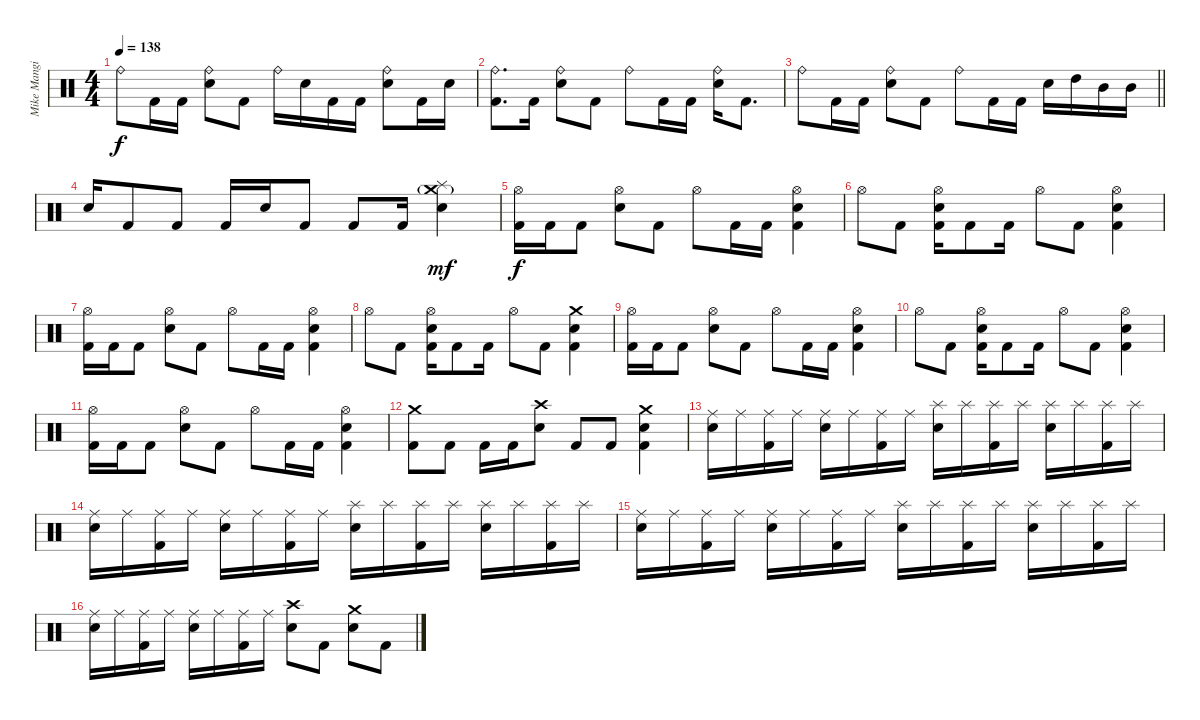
\track ("Mike Mangini" "Mike Mangi") {instrument percussion}
\staff {score}
\articulation defaults
\ts (4 4)
\tempo 138
\clef neutral
\ks c "Ride (bell)".8{dy f} "Kick (hit) 2".16 "Kick (hit) 2".16
("Ride (bell)" "Electric Snare (hit)").8 "Kick (hit) 2".8 "Ride (bell)".16 "Electric Snare (hit)".16 "Kick (hit) 2".16 "Kick (hit) 2".16 ("Ride (bell)" "Electric Snare (hit)").8 "Kick (hit) 2".16 "Electric Snare (hit)".16 |
("Ride (bell)" "Kick (hit) 2").8{d} "Kick (hit) 2".16 ("Ride (bell)" "Electric Snare (hit)").8 "Kick (hit) 2".8 "Ride (bell)".8 "Kick (hit) 2".16 "Kick (hit) 2".16 ("Ride (bell)" "Electric Snare (hit)").16 "Kick (hit) 2".8{d} |
\barLineRight lightlight "Ride (bell)".8 "Kick (hit) 2".16 "Kick (hit) 2".16
("Ride (bell)" "Electric Snare (hit)").8 "Kick (hit) 2".8 "Ride (bell)".8 "Kick (hit) 2".16 "Kick (hit) 2".16 "Electric Snare (hit)".16 "High Tom (hit)".16 "Mid Tom (hit)".16 "Mid Tom (hit)".16 |
"Electric Snare (hit)".16 "Kick (hit) 2".8 "Kick (hit) 2".8 "Kick (hit) 2".16 "Electric Snare (hit)".16 "Kick (hit) 2".8 "Kick (hit) 2".8 "Kick (hit) 2".16 ("Crash medium (hit)"{g} "Splash (hit)" "Electric Snare (hit)").4{dy mf} |
("Hi-Hat (open)" "Kick (hit) 2").16{dy f} "Kick (hit) 2".16 "Kick (hit) 2".8 ("Hi-Hat (open)" "Electric Snare (hit)").8 "Kick (hit) 2".8 "Hi-Hat (open)".8 "Kick (hit) 2".16 "Kick (hit) 2".16 ("Hi-Hat (open)" "Electric Snare (hit)" "Kick (hit) 2").4 |
"Hi-Hat (open)".8 "Kick (hit) 2".8 ("Hi-Hat (open)" "Electric Snare (hit)" "Kick (hit) 2").16 "Kick (hit) 2".8 "Kick (hit) 2".16 "Hi-Hat (open)".8 "Kick (hit) 2".8 ("Hi-Hat (open)" "Electric Snare (hit)" "Kick (hit) 2").4 |
("Hi-Hat (open)" "Kick (hit) 2").16 "Kick (hit) 2".16 "Kick (hit) 2".8 ("Hi-Hat (open)" "Electric Snare (hit)").8 "Kick (hit) 2".8 "Hi-Hat (open)".8 "Kick (hit) 2".16 "Kick (hit) 2".16 ("Hi-Hat (open)" "Electric Snare (hit)" "Kick (hit) 2").4 |
"Hi-Hat (open)".8 "Kick (hit) 2".8 ("Hi-Hat (open)" "Electric Snare (hit)" "Kick (hit) 2").16 "Kick (hit) 2".8 "Kick (hit) 2".16 "Hi-Hat (open)".8 "Kick (hit) 2".8 ("Crash medium (hit)" "Electric Snare (hit)" "Kick (hit) 2").4 |
("Hi-Hat (open)" "Kick (hit) 2").16 "Kick (hit) 2".16 "Kick (hit) 2".8 ("Hi-Hat (open)" "Electric Snare (hit)").8 "Kick (hit) 2".8 "Hi-Hat (open)".8 "Kick (hit) 2".16 "Kick (hit) 2".16 ("Hi-Hat (open)" "Electric Snare (hit)" "Kick (hit) 2").4 |
"Hi-Hat (open)".8 "Kick (hit) 2".8 ("Hi-Hat (open)" "Electric Snare (hit)" "Kick (hit) 2").16 "Kick (hit) 2".8 "Kick (hit) 2".16 "Hi-Hat (open)".8 "Kick (hit) 2".8 ("Hi-Hat (open)" "Electric Snare (hit)" "Kick (hit) 2").4 |
("Hi-Hat (open)" "Kick (hit) 2").16 "Kick (hit) 2".16 "Kick (hit) 2".8 ("Hi-Hat (open)" "Electric Snare (hit)").8 "Kick (hit) 2".8 "Hi-Hat (open)".8 "Kick (hit) 2".16 "Kick (hit) 2".16 ("Hi-Hat (open)" "Electric Snare (hit)" "Kick (hit) 2").4 |
("Crash medium (hit)" "Kick (hit) 2").8 "Kick (hit) 2".8 "Kick (hit) 2".16 "Kick (hit) 2".16 ("Crash high (hit)" "Electric Snare (hit)").8 "Kick (hit) 2".8 "Kick (hit) 2".8 ("Crash medium (hit)" "Electric Snare (hit)" "Kick (hit) 2").4 |
("Ride (middle)" "Electric Snare (hit)").16 "Ride (middle)".16 ("Ride (middle)" "Kick (hit) 2").16 "Ride (middle)".16 ("Ride (middle)" "Electric Snare (hit)").16 "Ride (middle)".16 ("Ride (middle)" "Kick (hit) 2").16 "Ride (middle)".16 ("Splash (hit)" "Electric Snare (hit)").16 "Splash (hit)".16 ("Splash (hit)" "Kick (hit) 2").16 "Splash (hit)".16 ("Splash (hit)" "Electric Snare (hit)").16 "Splash (hit)".16 ("Splash (hit)" "Kick (hit) 2").16 "Splash (hit)".16 |
("Ride (middle)" "Electric Snare (hit)").16 "Ride (middle)".16 ("Ride (middle)" "Kick (hit) 2").16 "Ride (middle)".16 ("Ride (middle)" "Electric Snare (hit)").16 "Ride (middle)".16 ("Ride (middle)" "Kick (hit) 2").16 "Ride (middle)".16 ("Splash (hit)" "Electric Snare (hit)").16 "Splash (hit)".16 ("Splash (hit)" "Kick (hit) 2").16 "Splash (hit)".16 ("Splash (hit)" "Electric Snare (hit)").16 "Splash (hit)".16 ("Splash (hit)" "Kick (hit) 2").16 "Splash (hit)".16 |
("Ride (middle)" "Electric Snare (hit)").16 "Ride (middle)".16 ("Ride (middle)" "Kick (hit) 2").16 "Ride (middle)".16 ("Ride (middle)" "Electric Snare (hit)").16 "Ride (middle)".16 ("Ride (middle)" "Kick (hit) 2").16 "Ride (middle)".16 ("Splash (hit)" "Electric Snare (hit)").16 "Splash (hit)".16 ("Splash (hit)" "Kick (hit) 2").16 "Splash (hit)".16 ("Splash (hit)" "Electric Snare (hit)").16 "Splash (hit)".16 ("Splash (hit)" "Kick (hit) 2").16 "Splash (hit)".16 |
("Ride (middle)" "Electric Snare (hit)").16 "Ride (middle)".16 ("Ride (middle)" "Kick (hit) 2").16 "Ride (middle)".16 ("Ride (middle)" "Electric Snare (hit)").16 "Ride (middle)".16 ("Ride (middle)" "Kick (hit) 2").16 "Ride (middle)".16 ("Crash high (hit)" "Electric Snare (hit)").8 "Kick (hit) 2".8 ("Crash medium (hit)" "Electric Snare (hit)").8 "Kick (hit) 2".8
